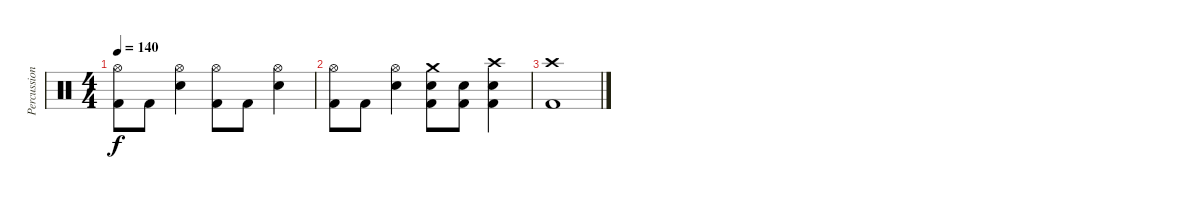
\track ("Percussion" "Percussion") {instrument percussion}
\staff {score}
\articulation defaults
\ts (4 4)
\tempo 140
\clef neutral
\ks c
("Hi-Hat (open)" "Kick (hit) 2").8{dy f} "Kick (hit) 2".8 ("Hi-Hat (open)" "Snare (hit) 2").4 ("Hi-Hat (open)" "Kick (hit) 2").8 "Kick (hit) 2".8 ("Hi-Hat (open)" "Snare (hit) 2").4 |
("Hi-Hat (open)" "Kick (hit) 2").8 "Kick (hit) 2".8 ("Hi-Hat (open)" "Snare (hit) 2").4 ("Crash medium (hit)" "Snare (hit) 2" "Kick (hit) 2").8 ("Snare (hit) 2" "Kick (hit) 2").8 ("Crash high (hit)" "Snare (hit) 2" "Kick (hit) 2").4 |
("Crash high (hit)" "Kick (hit) 2").1
